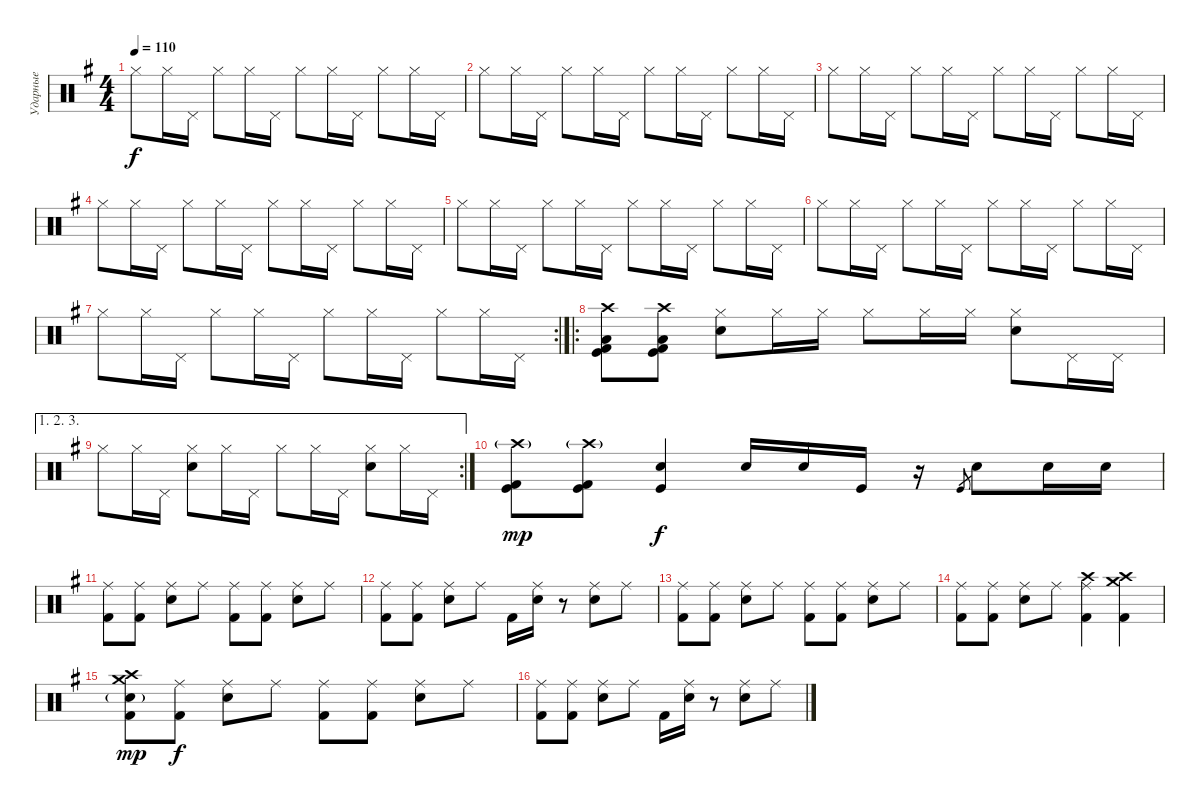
\track ("Ударные" "Ударные") {instrument percussion}
\staff {score}
\articulation defaults
\ts (4 4)
\tempo 110
\clef neutral
\ks eminor "Hi-Hat (closed)".8{dy f} "Hi-Hat (closed)".16 "Pedal Hi-Hat (hit)".16 "Hi-Hat (closed)".8 "Hi-Hat (closed)".16 "Pedal Hi-Hat (hit)".16 "Hi-Hat (closed)".8 "Hi-Hat (closed)".16 "Pedal Hi-Hat (hit)".16 "Hi-Hat (closed)".8 "Hi-Hat (closed)".16 "Pedal Hi-Hat (hit)".16
|
"Hi-Hat (closed)".8 "Hi-Hat (closed)".16 "Pedal Hi-Hat (hit)".16 "Hi-Hat (closed)".8 "Hi-Hat (closed)".16 "Pedal Hi-Hat (hit)".16 "Hi-Hat (closed)".8 "Hi-Hat (closed)".16 "Pedal Hi-Hat (hit)".16 "Hi-Hat (closed)".8 "Hi-Hat (closed)".16 "Pedal Hi-Hat (hit)".16 |
"Hi-Hat (closed)".8 "Hi-Hat (closed)".16 "Pedal Hi-Hat (hit)".16 "Hi-Hat (closed)".8 "Hi-Hat (closed)".16 "Pedal Hi-Hat (hit)".16 "Hi-Hat (closed)".8 "Hi-Hat (closed)".16 "Pedal Hi-Hat (hit)".16 "Hi-Hat (closed)".8 "Hi-Hat (closed)".16 "Pedal Hi-Hat (hit)".16 |
"Hi-Hat (closed)".8 "Hi-Hat (closed)".16 "Pedal Hi-Hat (hit)".16 "Hi-Hat (closed)".8 "Hi-Hat (closed)".16 "Pedal Hi-Hat (hit)".16 "Hi-Hat (closed)".8 "Hi-Hat (closed)".16 "Pedal Hi-Hat (hit)".16 "Hi-Hat (closed)".8 "Hi-Hat (closed)".16 "Pedal Hi-Hat (hit)".16 |
"Hi-Hat (closed)".8 "Hi-Hat (closed)".16 "Pedal Hi-Hat (hit)".16 "Hi-Hat (closed)".8 "Hi-Hat (closed)".16 "Pedal Hi-Hat (hit)".16 "Hi-Hat (closed)".8 "Hi-Hat (closed)".16 "Pedal Hi-Hat (hit)".16 "Hi-Hat (closed)".8 "Hi-Hat (closed)".16 "Pedal Hi-Hat (hit)".16 |
"Hi-Hat (closed)".8 "Hi-Hat (closed)".16 "Pedal Hi-Hat (hit)".16 "Hi-Hat (closed)".8 "Hi-Hat (closed)".16 "Pedal Hi-Hat (hit)".16 "Hi-Hat (closed)".8 "Hi-Hat (closed)".16 "Pedal Hi-Hat (hit)".16 "Hi-Hat (closed)".8 "Hi-Hat (closed)".16 "Pedal Hi-Hat (hit)".16 |
\rc 2 "Hi-Hat (closed)".8 "Hi-Hat (closed)".16 "Pedal Hi-Hat (hit)".16 "Hi-Hat (closed)".8 "Hi-Hat (closed)".16 "Pedal Hi-Hat (hit)".16 "Hi-Hat (closed)".8 "Hi-Hat (closed)".16 "Pedal Hi-Hat (hit)".16 "Hi-Hat (closed)".8 "Hi-Hat (closed)".16 "Pedal Hi-Hat (hit)".16
|
\ro
("Crash high (hit)" "Kick (hit) 2" "Low Floor Tom (hit)" "Kick (hit)").8 ("Crash high (hit)" "Kick (hit) 2" "Low Floor Tom (hit)" "Kick (hit)").8 ("Hi-Hat (closed)" "Electric Snare (hit)").8 "Hi-Hat (closed)".16 "Hi-Hat (closed)".16 "Hi-Hat (closed)".8 "Hi-Hat (closed)".16 "Hi-Hat (closed)".16 ("Hi-Hat (closed)" "Electric Snare (hit)").8 "Pedal Hi-Hat (hit)".16 "Pedal Hi-Hat (hit)".16 |
\ae (1 2 3)
\rc 2 "Hi-Hat (closed)".8 "Hi-Hat (closed)".16 "Pedal Hi-Hat (hit)".16
("Hi-Hat (closed)" "Electric Snare (hit)").8 "Hi-Hat (closed)".16 "Pedal Hi-Hat (hit)".16 "Hi-Hat (closed)".8 "Hi-Hat (closed)".16 "Pedal Hi-Hat (hit)".16 ("Hi-Hat (closed)" "Electric Snare (hit)").8 "Hi-Hat (closed)".16 "Pedal Hi-Hat (hit)".16 |
("Crash high (hit)"{g} "Kick (hit)" "Kick (hit) 2").8{dy mp} ("Crash high (hit)"{g} "Kick (hit)" "Kick (hit) 2").8 ("Kick (hit)" "Electric Snare (hit)").4{dy f} "Electric Snare (hit)".16 "Electric Snare (hit)".16 "Kick (hit)".16 r.16 "Kick (hit)".8{gr} "Electric Snare (hit)".8 "Electric Snare (hit)".16 "Electric Snare (hit)".16 |
("Ride (middle)" "Kick (hit) 2").8 ("Ride (middle)" "Kick (hit) 2").8 ("Ride (middle)" "Electric Snare (hit)").8 "Ride (middle)".8 ("Ride (middle)" "Kick (hit) 2").8 ("Ride (middle)" "Kick (hit) 2").8 ("Ride (middle)" "Electric Snare (hit)").8 "Ride (middle)".8 |
("Ride (middle)" "Kick (hit) 2").8 ("Ride (middle)" "Kick (hit) 2").8 ("Ride (middle)" "Electric Snare (hit)").8 "Ride (middle)".8 "Kick (hit) 2".16 ("Ride (middle)" "Electric Snare (hit)").16 r.8 ("Ride (middle)" "Electric Snare (hit)").8 "Ride (middle)".8 |
("Ride (middle)" "Kick (hit) 2").8 ("Ride (middle)" "Kick (hit) 2").8 ("Ride (middle)" "Electric Snare (hit)").8 "Ride (middle)".8 ("Ride (middle)" "Kick (hit) 2").8 ("Ride (middle)" "Kick (hit) 2").8 ("Ride (middle)" "Electric Snare (hit)").8 "Ride (middle)".8 |
("Ride (middle)" "Kick (hit) 2").8 ("Ride (middle)" "Kick (hit) 2").8 ("Ride (middle)" "Electric Snare (hit)").8 "Ride (middle)".8 ("Ride (middle)" "Crash high (hit)" "Kick (hit) 2").4 ("Crash medium (hit)" "Crash high (hit)" "Kick (hit) 2").4 |
("Crash high (hit)" "Crash medium (hit)" "Electric Snare (hit)"{g} "Kick (hit) 2").8{dy mp} ("Ride (middle)" "Kick (hit) 2").8{dy f} ("Ride (middle)" "Electric Snare (hit)").8 "Ride (middle)".8 ("Ride (middle)" "Kick (hit) 2").8 ("Ride (middle)" "Kick (hit) 2").8 ("Ride (middle)" "Electric Snare (hit)").8 "Ride (middle)".8 |
("Ride (middle)" "Kick (hit) 2").8 ("Ride (middle)" "Kick (hit) 2").8 ("Ride (middle)" "Electric Snare (hit)").8 "Ride (middle)".8 "Kick (hit) 2".16 ("Ride (middle)" "Electric Snare (hit)").16 r.8 ("Ride (middle)" "Electric Snare (hit)").8 "Ride (middle)".8
